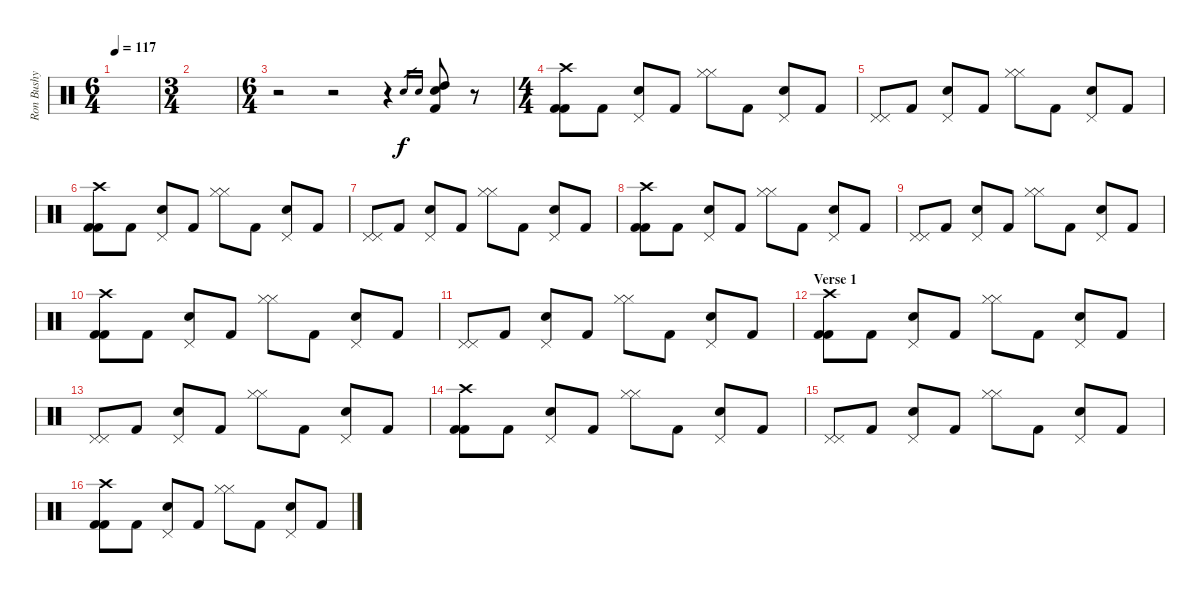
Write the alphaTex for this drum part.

\track ("Ron Bushy" "Ron Bushy") {instrument percussion}
\staff {score}
\articulation defaults
\ts (6 4)
\tempo 117
\clef neutral
\ks c
|
\ts (3 4)
|
\ts (6 4)
r.2 r.2 r.4 "Snare (hit) 2".16{gr} "Snare (hit) 2".16{gr} ("Kick (hit) 2" "High Tom (hit)" "Electric Snare (hit)").8 r.8 |
\ts (4 4)
("Crash high (hit)" "Kick (hit) 2" "Kick (hit) 2").8 "Kick (hit) 2".8 ("Pedal Hi-Hat (hit)" "Snare (hit) 2").8 "Kick (hit) 2".8 ("Hi-Hat (closed)" "Hi-Hat (closed)").8 "Kick (hit) 2".8 ("Pedal Hi-Hat (hit)" "Snare (hit) 2").8 "Kick (hit) 2".8 |
("Pedal Hi-Hat (hit)" "Pedal Hi-Hat (hit)").8 "Kick (hit) 2".8 ("Pedal Hi-Hat (hit)" "Snare (hit) 2").8 "Kick (hit) 2".8 ("Hi-Hat (closed)" "Hi-Hat (closed)").8 "Kick (hit) 2".8 ("Pedal Hi-Hat (hit)" "Snare (hit) 2").8 "Kick (hit) 2".8 |
("Crash high (hit)" "Kick (hit) 2" "Kick (hit) 2").8 "Kick (hit) 2".8 ("Pedal Hi-Hat (hit)" "Snare (hit) 2").8 "Kick (hit) 2".8 ("Hi-Hat (closed)" "Hi-Hat (closed)").8 "Kick (hit) 2".8 ("Pedal Hi-Hat (hit)" "Snare (hit) 2").8 "Kick (hit) 2".8 |
("Pedal Hi-Hat (hit)" "Pedal Hi-Hat (hit)").8 "Kick (hit) 2".8 ("Pedal Hi-Hat (hit)" "Snare (hit) 2").8 "Kick (hit) 2".8 ("Hi-Hat (closed)" "Hi-Hat (closed)").8 "Kick (hit) 2".8 ("Pedal Hi-Hat (hit)" "Snare (hit) 2").8 "Kick (hit) 2".8 |
("Crash high (hit)" "Kick (hit) 2" "Kick (hit) 2").8 "Kick (hit) 2".8 ("Pedal Hi-Hat (hit)" "Snare (hit) 2").8 "Kick (hit) 2".8 ("Hi-Hat (closed)" "Hi-Hat (closed)").8 "Kick (hit) 2".8 ("Pedal Hi-Hat (hit)" "Snare (hit) 2").8 "Kick (hit) 2".8 |
("Pedal Hi-Hat (hit)" "Pedal Hi-Hat (hit)").8 "Kick (hit) 2".8 ("Pedal Hi-Hat (hit)" "Snare (hit) 2").8 "Kick (hit) 2".8 ("Hi-Hat (closed)" "Hi-Hat (closed)").8 "Kick (hit) 2".8 ("Pedal Hi-Hat (hit)" "Snare (hit) 2").8 "Kick (hit) 2".8 |
("Crash high (hit)" "Kick (hit) 2" "Kick (hit) 2").8 "Kick (hit) 2".8 ("Pedal Hi-Hat (hit)" "Snare (hit) 2").8 "Kick (hit) 2".8 ("Hi-Hat (closed)" "Hi-Hat (closed)").8 "Kick (hit) 2".8 ("Pedal Hi-Hat (hit)" "Snare (hit) 2").8 "Kick (hit) 2".8 |
("Pedal Hi-Hat (hit)" "Pedal Hi-Hat (hit)").8 "Kick (hit) 2".8 ("Pedal Hi-Hat (hit)" "Snare (hit) 2").8 "Kick (hit) 2".8 ("Hi-Hat (closed)" "Hi-Hat (closed)").8 "Kick (hit) 2".8 ("Pedal Hi-Hat (hit)" "Snare (hit) 2").8 "Kick (hit) 2".8 |
\section ("" "Verse 1")
("Crash high (hit)" "Kick (hit) 2" "Kick (hit) 2").8 "Kick (hit) 2".8 ("Pedal Hi-Hat (hit)" "Snare (hit) 2").8 "Kick (hit) 2".8 ("Hi-Hat (closed)" "Hi-Hat (closed)").8 "Kick (hit) 2".8 ("Pedal Hi-Hat (hit)" "Snare (hit) 2").8 "Kick (hit) 2".8 |
("Pedal Hi-Hat (hit)" "Pedal Hi-Hat (hit)").8 "Kick (hit) 2".8 ("Pedal Hi-Hat (hit)" "Snare (hit) 2").8 "Kick (hit) 2".8 ("Hi-Hat (closed)" "Hi-Hat (closed)").8 "Kick (hit) 2".8 ("Pedal Hi-Hat (hit)" "Snare (hit) 2").8 "Kick (hit) 2".8 |
("Crash high (hit)" "Kick (hit) 2" "Kick (hit) 2").8 "Kick (hit) 2".8 ("Pedal Hi-Hat (hit)" "Snare (hit) 2").8 "Kick (hit) 2".8 ("Hi-Hat (closed)" "Hi-Hat (closed)").8 "Kick (hit) 2".8 ("Pedal Hi-Hat (hit)" "Snare (hit) 2").8 "Kick (hit) 2".8 |
("Pedal Hi-Hat (hit)" "Pedal Hi-Hat (hit)").8 "Kick (hit) 2".8 ("Pedal Hi-Hat (hit)" "Snare (hit) 2").8 "Kick (hit) 2".8 ("Hi-Hat (closed)" "Hi-Hat (closed)").8 "Kick (hit) 2".8 ("Pedal Hi-Hat (hit)" "Snare (hit) 2").8 "Kick (hit) 2".8 |
("Crash high (hit)" "Kick (hit) 2" "Kick (hit) 2").8 "Kick (hit) 2".8 ("Pedal Hi-Hat (hit)" "Snare (hit) 2").8 "Kick (hit) 2".8 ("Hi-Hat (closed)" "Hi-Hat (closed)").8 "Kick (hit) 2".8 ("Pedal Hi-Hat (hit)" "Snare (hit) 2").8 "Kick (hit) 2".8
